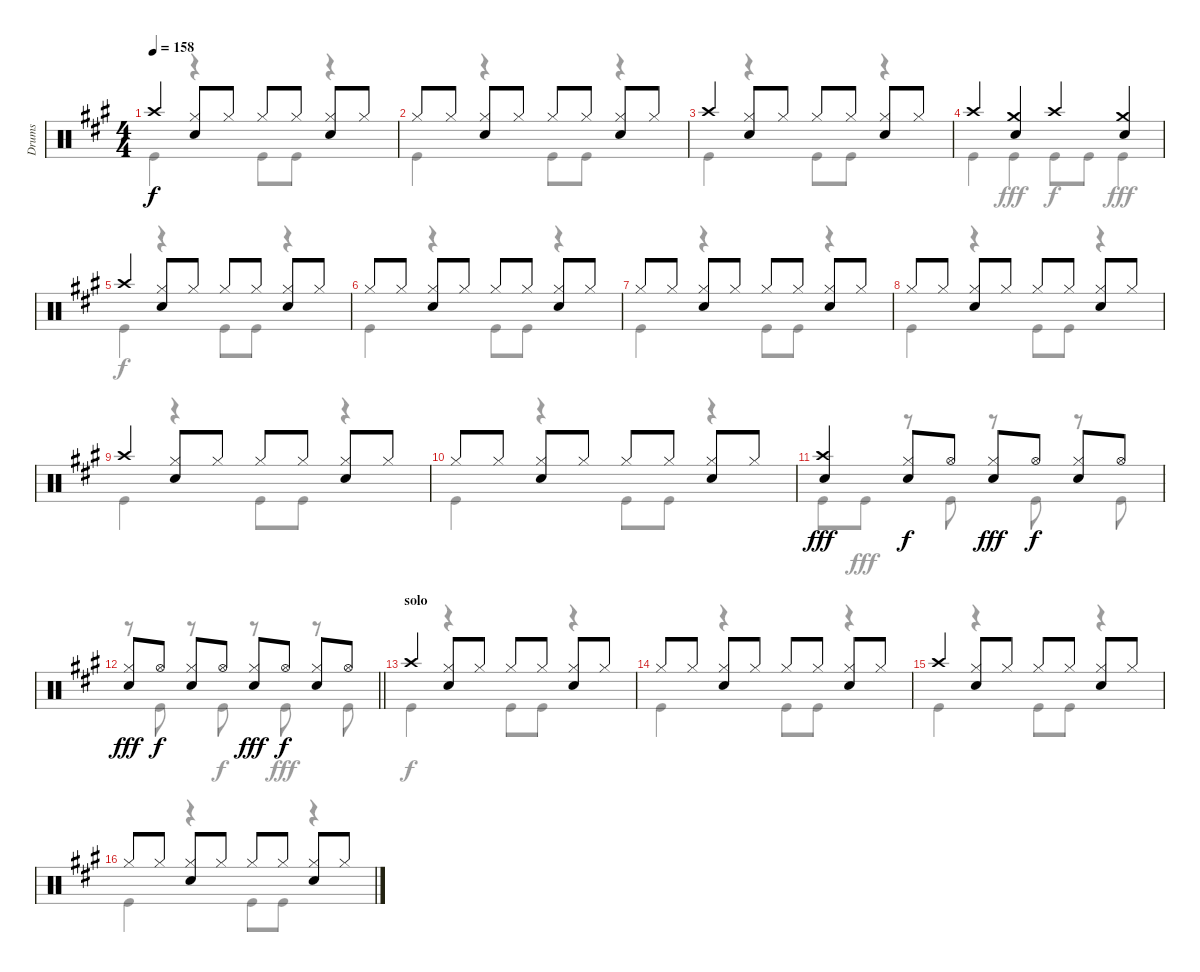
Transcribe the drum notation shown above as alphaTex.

\track ("Drums" "Drums") {instrument percussion}
\staff {score}
\articulation defaults
\voice
\ts (4 4)
\tempo 158
\clef neutral
\ks a "Crash high (hit)".4{dy f}
("Hi-Hat (closed)" "Snare (hit) 2").8 "Hi-Hat (closed)".8 "Hi-Hat (closed)".8 "Hi-Hat (closed)".8 ("Hi-Hat (closed)" "Snare (hit) 2").8 "Hi-Hat (closed)".8 |
"Hi-Hat (closed)".8 "Hi-Hat (closed)".8 ("Hi-Hat (closed)" "Snare (hit) 2").8 "Hi-Hat (closed)".8 "Hi-Hat (closed)".8 "Hi-Hat (closed)".8 ("Hi-Hat (closed)" "Snare (hit) 2").8 "Hi-Hat (closed)".8 |
"Crash high (hit)".4 ("Hi-Hat (closed)" "Snare (hit) 2").8 "Hi-Hat (closed)".8 "Hi-Hat (closed)".8 "Hi-Hat (closed)".8 ("Hi-Hat (closed)" "Snare (hit) 2").8 "Hi-Hat (closed)".8 |
"Crash high (hit)".4 ("Crash medium (hit)" "Snare (hit) 2").4 "Crash high (hit)".4 ("Crash medium (hit)" "Snare (hit) 2").4 |
"Crash high (hit)".4 ("Hi-Hat (closed)" "Snare (hit) 2").8 "Hi-Hat (closed)".8 "Hi-Hat (closed)".8 "Hi-Hat (closed)".8 ("Hi-Hat (closed)" "Snare (hit) 2").8 "Hi-Hat (closed)".8 |
"Hi-Hat (closed)".8 "Hi-Hat (closed)".8 ("Hi-Hat (closed)" "Snare (hit) 2").8 "Hi-Hat (closed)".8 "Hi-Hat (closed)".8 "Hi-Hat (closed)".8 ("Hi-Hat (closed)" "Snare (hit) 2").8 "Hi-Hat (closed)".8 |
"Hi-Hat (closed)".8 "Hi-Hat (closed)".8 ("Hi-Hat (closed)" "Snare (hit) 2").8 "Hi-Hat (closed)".8 "Hi-Hat (closed)".8 "Hi-Hat (closed)".8 ("Hi-Hat (closed)" "Snare (hit) 2").8 "Hi-Hat (closed)".8 |
"Hi-Hat (closed)".8 "Hi-Hat (closed)".8 ("Hi-Hat (closed)" "Snare (hit) 2").8 "Hi-Hat (closed)".8 "Hi-Hat (closed)".8 "Hi-Hat (closed)".8 ("Hi-Hat (closed)" "Snare (hit) 2").8 "Hi-Hat (closed)".8 |
"Crash high (hit)".4 ("Hi-Hat (closed)" "Snare (hit) 2").8 "Hi-Hat (closed)".8 "Hi-Hat (closed)".8 "Hi-Hat (closed)".8 ("Hi-Hat (closed)" "Snare (hit) 2").8 "Hi-Hat (closed)".8 |
"Hi-Hat (closed)".8 "Hi-Hat (closed)".8 ("Hi-Hat (closed)" "Snare (hit) 2").8 "Hi-Hat (closed)".8 "Hi-Hat (closed)".8 "Hi-Hat (closed)".8 ("Hi-Hat (closed)" "Snare (hit) 2").8 "Hi-Hat (closed)".8 |
("Crash high (hit)" "Snare (hit) 2").4{dy fff} ("Hi-Hat (closed)" "Snare (hit) 2").8{dy f} "Hi-Hat (open)".8 ("Hi-Hat (closed)" "Snare (hit) 2").8{dy fff} "Hi-Hat (open)".8{dy f} ("Hi-Hat (closed)" "Snare (hit) 2").8 "Hi-Hat (open)".8 |
\barLineRight lightlight
("Hi-Hat (closed)" "Snare (hit) 2").8{dy fff} "Hi-Hat (open)".8{dy f} ("Hi-Hat (closed)" "Snare (hit) 2").8 "Hi-Hat (open)".8 ("Hi-Hat (closed)" "Snare (hit) 2").8{dy fff} "Hi-Hat (open)".8{dy f} ("Hi-Hat (closed)" "Snare (hit) 2").8 "Hi-Hat (open)".8 |
\section ("" "solo")
"Crash high (hit)".4 ("Hi-Hat (closed)" "Snare (hit) 2").8 "Hi-Hat (closed)".8 "Hi-Hat (closed)".8 "Hi-Hat (closed)".8 ("Hi-Hat (closed)" "Snare (hit) 2").8 "Hi-Hat (closed)".8 |
"Hi-Hat (closed)".8 "Hi-Hat (closed)".8 ("Hi-Hat (closed)" "Snare (hit) 2").8 "Hi-Hat (closed)".8 "Hi-Hat (closed)".8 "Hi-Hat (closed)".8 ("Hi-Hat (closed)" "Snare (hit) 2").8 "Hi-Hat (closed)".8 |
"Crash high (hit)".4 ("Hi-Hat (closed)" "Snare (hit) 2").8 "Hi-Hat (closed)".8 "Hi-Hat (closed)".8 "Hi-Hat (closed)".8 ("Hi-Hat (closed)" "Snare (hit) 2").8 "Hi-Hat (closed)".8 |
"Hi-Hat (closed)".8 "Hi-Hat (closed)".8 ("Hi-Hat (closed)" "Snare (hit) 2").8 "Hi-Hat (closed)".8 "Hi-Hat (closed)".8 "Hi-Hat (closed)".8 ("Hi-Hat (closed)" "Snare (hit) 2").8 "Hi-Hat (closed)".8
\voice
\clef neutral
\ottava regular
\simile none
\ks a "Kick (hit)".4{dy f}
r.4 "Kick (hit)".8 "Kick (hit)".8 r.4 |
"Kick (hit)".4 r.4 "Kick (hit)".8 "Kick (hit)".8 r.4 |
"Kick (hit)".4 r.4 "Kick (hit)".8 "Kick (hit)".8 r.4 |
"Kick (hit)".4 "Kick (hit)".4{dy fff} "Kick (hit)".8{dy f} "Kick (hit)".8 "Kick (hit)".4{dy fff} |
"Kick (hit)".4{dy f} r.4 "Kick (hit)".8 "Kick (hit)".8 r.4 |
"Kick (hit)".4 r.4 "Kick (hit)".8 "Kick (hit)".8 r.4 |
"Kick (hit)".4 r.4 "Kick (hit)".8 "Kick (hit)".8 r.4 |
"Kick (hit)".4 r.4 "Kick (hit)".8 "Kick (hit)".8 r.4 |
"Kick (hit)".4 r.4 "Kick (hit)".8 "Kick (hit)".8 r.4 |
"Kick (hit)".4 r.4 "Kick (hit)".8 "Kick (hit)".8 r.4 |
"Kick (hit)".8 "Kick (hit)".8{dy fff} r.8 "Kick (hit)".8 r.8 "Kick (hit)".8 r.8 "Kick (hit)".8 |
\barLineRight lightlight
r.8 "Kick (hit)".8 r.8 "Kick (hit)".8{dy f} r.8 "Kick (hit)".8{dy fff} r.8 "Kick (hit)".8 |
"Kick (hit)".4{dy f} r.4 "Kick (hit)".8 "Kick (hit)".8 r.4 |
"Kick (hit)".4 r.4 "Kick (hit)".8 "Kick (hit)".8 r.4 |
"Kick (hit)".4 r.4 "Kick (hit)".8 "Kick (hit)".8 r.4 |
"Kick (hit)".4 r.4 "Kick (hit)".8 "Kick (hit)".8 r.4
